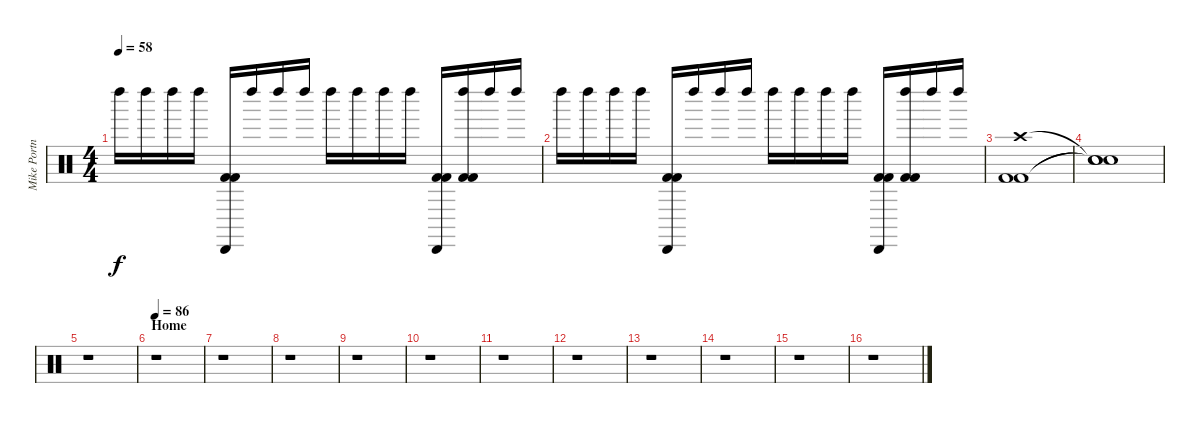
\track ("Mike Portnoy - Drum" "Mike Portn") {instrument percussion}
\staff {score}
\articulation defaults
\ts (4 4)
\tempo 58
\clef neutral
\ks c "Left Maraca (hit)".16{dy f} "Left Maraca (hit)".16 "Left Maraca (hit)".16 "Left Maraca (hit)".16
("Cabasa (hit)" "Kick (hit) 2" "Kick (hit) 2").16 "Left Maraca (hit)".16 "Left Maraca (hit)".16 "Left Maraca (hit)".16 "Left Maraca (hit)".16 "Left Maraca (hit)".16 "Left Maraca (hit)".16 "Left Maraca (hit)".16 ("Cabasa (hit)" "Kick (hit) 2" "Kick (hit) 2").16 ("Left Maraca (hit)" "Kick (hit) 2" "Kick (hit) 2").16 "Left Maraca (hit)".16 "Left Maraca (hit)".16 |
"Left Maraca (hit)".16 "Left Maraca (hit)".16 "Left Maraca (hit)".16 "Left Maraca (hit)".16 ("Cabasa (hit)" "Kick (hit) 2" "Kick (hit) 2").16 "Left Maraca (hit)".16 "Left Maraca (hit)".16 "Left Maraca (hit)".16 "Left Maraca (hit)".16 "Left Maraca (hit)".16 "Left Maraca (hit)".16 "Left Maraca (hit)".16 ("Cabasa (hit)" "Kick (hit) 2" "Kick (hit) 2").16 ("Left Maraca (hit)" "Kick (hit) 2" "Kick (hit) 2").16 "Left Maraca (hit)".16 "Left Maraca (hit)".16 |
("Crash high (hit)" "Kick (hit) 2" "Kick (hit) 2").1 |
("Snare (hit)"{t} "Snare (hit)"{t} "Snare (hit)"{t}).1 |
r.1 |
\section ("" "Home")
\tempo 86
r.1 |
r.1 |
r.1 |
r.1 |
r.1 |
r.1 |
r.1 |
r.1 |
r.1 |
r.1 |
r.1
